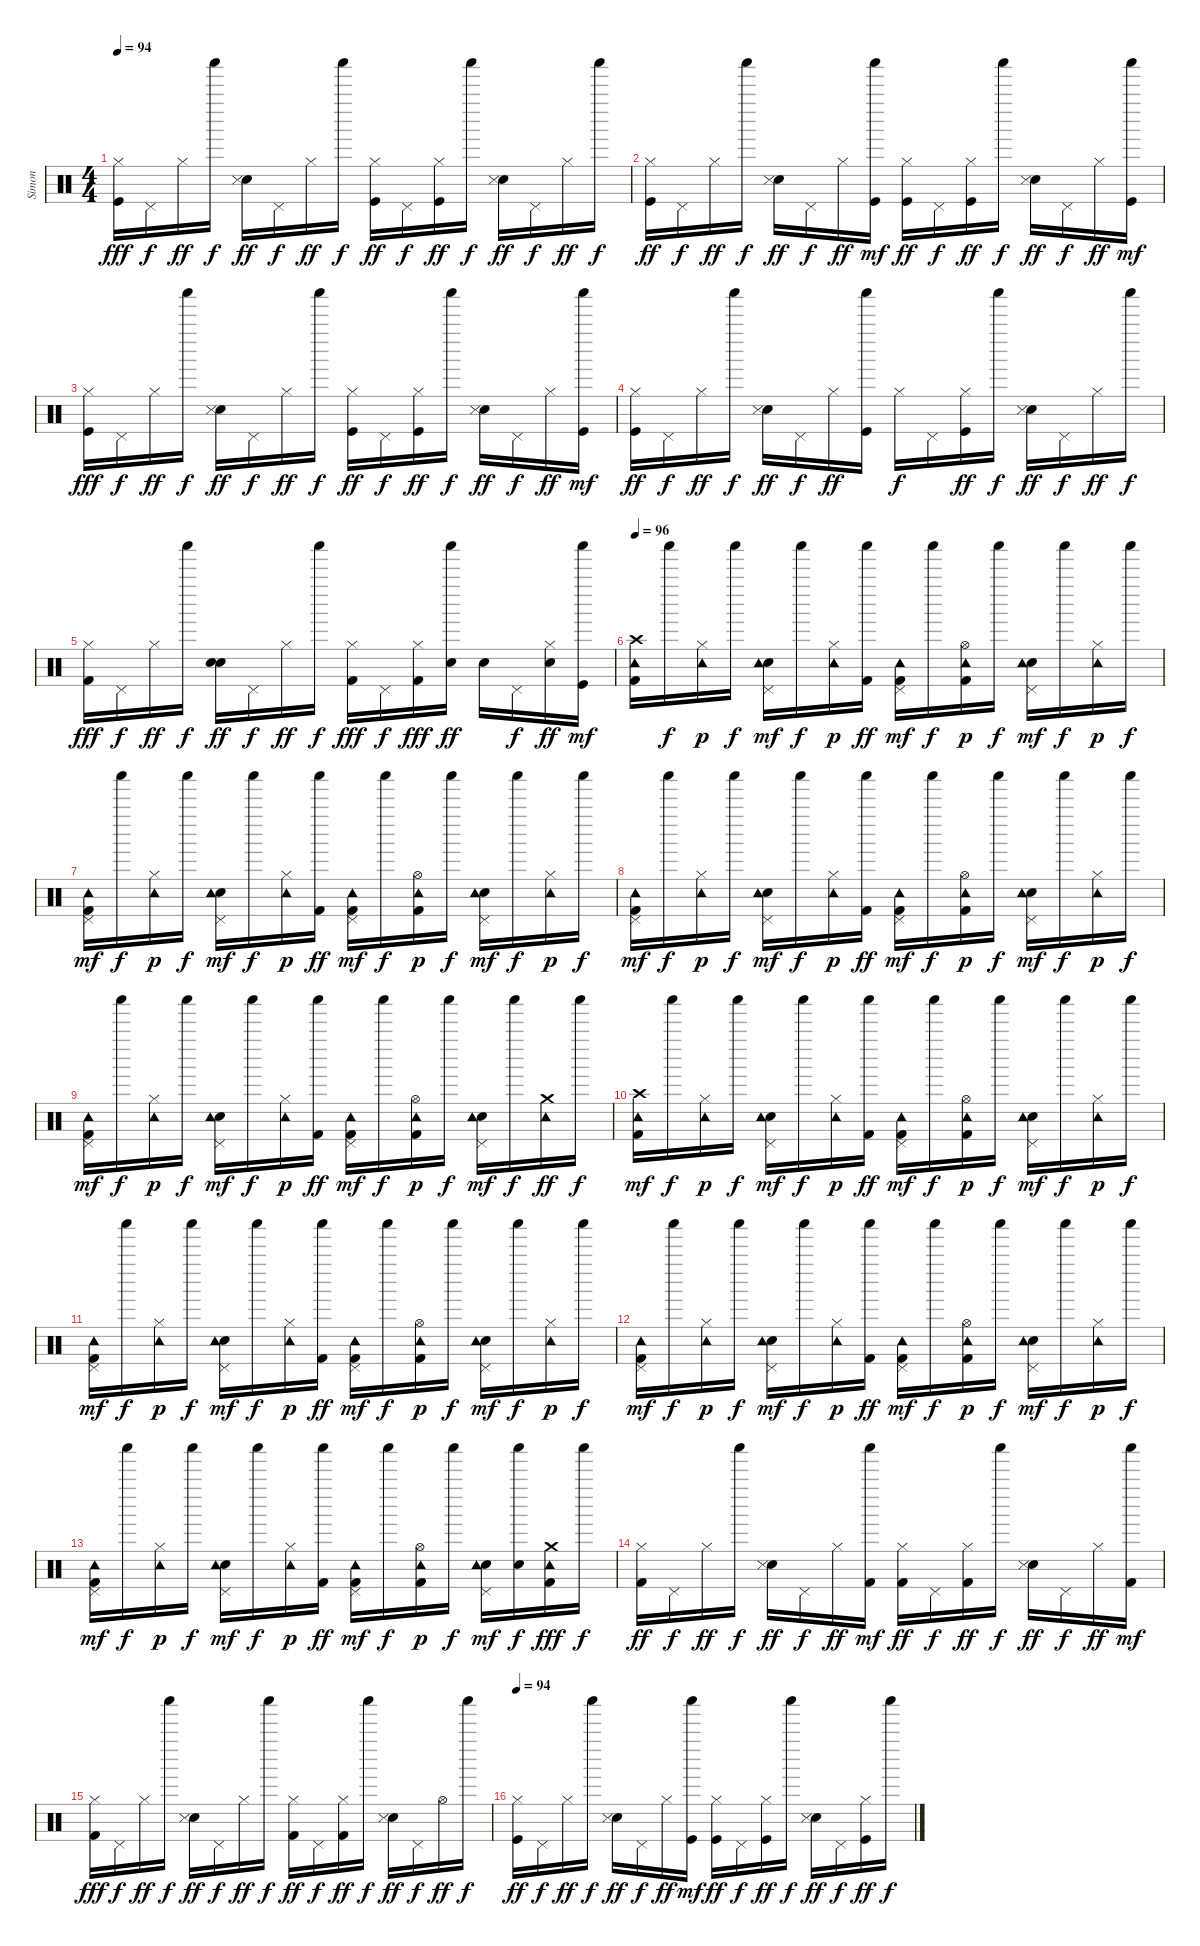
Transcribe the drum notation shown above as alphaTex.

\track ("Simon" "Simon") {instrument percussion}
\staff {score}
\articulation defaults
\ts (4 4)
\tempo 94
\clef neutral
\ks c
("Hi-Hat (closed)" "Kick (hit)").16{dy fff} "Pedal Hi-Hat (hit)".16{dy f} "Hi-Hat (closed)".16{dy ff} "Shaker (hit)".16{dy f} ("Electric Snare (hit)" "Snare (side stick) 3").16{dy ff} "Pedal Hi-Hat (hit)".16{dy f} "Hi-Hat (closed)".16{dy ff} "Shaker (hit)".16{dy f} ("Kick (hit)" "Hi-Hat (closed)").16{dy ff} "Pedal Hi-Hat (hit)".16{dy f} ("Kick (hit)" "Hi-Hat (closed)").16{dy ff} "Shaker (hit)".16{dy f} ("Electric Snare (hit)" "Snare (side stick) 3").16{dy ff} "Pedal Hi-Hat (hit)".16{dy f} "Hi-Hat (closed)".16{dy ff} "Shaker (hit)".16{dy f} |
("Kick (hit)" "Hi-Hat (closed)").16{dy ff} "Pedal Hi-Hat (hit)".16{dy f} "Hi-Hat (closed)".16{dy ff} "Shaker (hit)".16{dy f} ("Electric Snare (hit)" "Snare (side stick) 3").16{dy ff} "Pedal Hi-Hat (hit)".16{dy f} "Hi-Hat (closed)".16{dy ff} ("Kick (hit)" "Shaker (hit)").16{dy mf} ("Kick (hit)" "Hi-Hat (closed)").16{dy ff} "Pedal Hi-Hat (hit)".16{dy f} ("Kick (hit)" "Hi-Hat (closed)").16{dy ff} "Shaker (hit)".16{dy f} ("Electric Snare (hit)" "Snare (side stick) 3").16{dy ff} "Pedal Hi-Hat (hit)".16{dy f} "Hi-Hat (closed)".16{dy ff} ("Shaker (hit)" "Kick (hit)").16{dy mf} |
("Hi-Hat (closed)" "Kick (hit)").16{dy fff} "Pedal Hi-Hat (hit)".16{dy f} "Hi-Hat (closed)".16{dy ff} "Shaker (hit)".16{dy f} ("Electric Snare (hit)" "Snare (side stick) 3").16{dy ff} "Pedal Hi-Hat (hit)".16{dy f} "Hi-Hat (closed)".16{dy ff} "Shaker (hit)".16{dy f} ("Kick (hit)" "Hi-Hat (closed)").16{dy ff} "Pedal Hi-Hat (hit)".16{dy f} ("Kick (hit)" "Hi-Hat (closed)").16{dy ff} "Shaker (hit)".16{dy f} ("Electric Snare (hit)" "Snare (side stick) 3").16{dy ff} "Pedal Hi-Hat (hit)".16{dy f} "Hi-Hat (closed)".16{dy ff} ("Kick (hit)" "Shaker (hit)").16{dy mf} |
("Kick (hit)" "Hi-Hat (closed)").16{dy ff} "Pedal Hi-Hat (hit)".16{dy f} "Hi-Hat (closed)".16{dy ff} "Shaker (hit)".16{dy f} ("Electric Snare (hit)" "Snare (side stick) 3").16{dy ff} "Pedal Hi-Hat (hit)".16{dy f} "Hi-Hat (closed)".16{dy ff} ("Shaker (hit)" "Kick (hit)").16 "Hi-Hat (closed)".16{dy f} "Pedal Hi-Hat (hit)".16 ("Kick (hit)" "Hi-Hat (closed)").16{dy ff} "Shaker (hit)".16{dy f} ("Electric Snare (hit)" "Snare (side stick) 3").16{dy ff} "Pedal Hi-Hat (hit)".16{dy f} "Hi-Hat (closed)".16{dy ff} "Shaker (hit)".16{dy f} |
("Hi-Hat (closed)" "Kick (hit) 2").16{dy fff} "Pedal Hi-Hat (hit)".16{dy f} "Hi-Hat (closed)".16{dy ff} "Shaker (hit)".16{dy f} ("Electric Snare (hit)" "Snare (hit) 2").16{dy ff} "Pedal Hi-Hat (hit)".16{dy f} "Hi-Hat (closed)".16{dy ff} "Shaker (hit)".16{dy f} ("Hi-Hat (closed)" "Kick (hit) 2").16{dy fff} "Pedal Hi-Hat (hit)".16{dy f} ("Hi-Hat (closed)" "Kick (hit) 2").16{dy fff} ("Shaker (hit)" "Snare (hit) 2").16{dy ff} "Snare (hit) 2".16 "Pedal Hi-Hat (hit)".16{dy f} ("Hi-Hat (closed)" "Snare (hit) 2").16{dy ff} ("Kick (hit)" "Shaker (hit)").16{dy mf} |
\tempo 96
("Kick (hit) 2" "Crash high (hit)" "Tambourine (hit)").16 "Shaker (hit)".16{dy f} ("Hi-Hat (closed)" "Tambourine (hit)").16{dy p} "Shaker (hit)".16{dy f} ("Snare (hit) 2" "Pedal Hi-Hat (hit)" "Tambourine (hit)").16{dy mf} "Shaker (hit)".16{dy f} ("Hi-Hat (closed)" "Tambourine (hit)").16{dy p} ("Shaker (hit)" "Kick (hit) 2").16{dy ff} ("Kick (hit) 2" "Pedal Hi-Hat (hit)" "Tambourine (hit)").16{dy mf} "Shaker (hit)".16{dy f} ("Kick (hit) 2" "Hi-Hat (open)" "Tambourine (hit)").16{dy p} "Shaker (hit)".16{dy f} ("Snare (hit) 2" "Pedal Hi-Hat (hit)" "Tambourine (hit)").16{dy mf} "Shaker (hit)".16{dy f} ("Hi-Hat (closed)" "Tambourine (hit)").16{dy p} "Shaker (hit)".16{dy f} |
("Kick (hit) 2" "Pedal Hi-Hat (hit)" "Tambourine (hit)").16{dy mf} "Shaker (hit)".16{dy f} ("Hi-Hat (closed)" "Tambourine (hit)").16{dy p} "Shaker (hit)".16{dy f} ("Snare (hit) 2" "Pedal Hi-Hat (hit)" "Tambourine (hit)").16{dy mf} "Shaker (hit)".16{dy f} ("Hi-Hat (closed)" "Tambourine (hit)").16{dy p} ("Shaker (hit)" "Kick (hit) 2").16{dy ff} ("Kick (hit) 2" "Pedal Hi-Hat (hit)" "Tambourine (hit)").16{dy mf} "Shaker (hit)".16{dy f} ("Kick (hit) 2" "Hi-Hat (open)" "Tambourine (hit)").16{dy p} "Shaker (hit)".16{dy f} ("Snare (hit) 2" "Pedal Hi-Hat (hit)" "Tambourine (hit)").16{dy mf} "Shaker (hit)".16{dy f} ("Hi-Hat (closed)" "Tambourine (hit)").16{dy p} "Shaker (hit)".16{dy f} |
("Kick (hit) 2" "Tambourine (hit)" "Pedal Hi-Hat (hit)").16{dy mf} "Shaker (hit)".16{dy f} ("Hi-Hat (closed)" "Tambourine (hit)").16{dy p} "Shaker (hit)".16{dy f} ("Snare (hit) 2" "Pedal Hi-Hat (hit)" "Tambourine (hit)").16{dy mf} "Shaker (hit)".16{dy f} ("Hi-Hat (closed)" "Tambourine (hit)").16{dy p} ("Shaker (hit)" "Kick (hit) 2").16{dy ff} ("Kick (hit) 2" "Pedal Hi-Hat (hit)" "Tambourine (hit)").16{dy mf} "Shaker (hit)".16{dy f} ("Kick (hit) 2" "Hi-Hat (open)" "Tambourine (hit)").16{dy p} "Shaker (hit)".16{dy f} ("Snare (hit) 2" "Pedal Hi-Hat (hit)" "Tambourine (hit)").16{dy mf} "Shaker (hit)".16{dy f} ("Hi-Hat (closed)" "Tambourine (hit)").16{dy p} "Shaker (hit)".16{dy f} |
("Kick (hit) 2" "Pedal Hi-Hat (hit)" "Tambourine (hit)").16{dy mf} "Shaker (hit)".16{dy f} ("Hi-Hat (closed)" "Tambourine (hit)").16{dy p} "Shaker (hit)".16{dy f} ("Snare (hit) 2" "Pedal Hi-Hat (hit)" "Tambourine (hit)").16{dy mf} "Shaker (hit)".16{dy f} ("Hi-Hat (closed)" "Tambourine (hit)").16{dy p} ("Shaker (hit)" "Kick (hit) 2").16{dy ff} ("Kick (hit) 2" "Pedal Hi-Hat (hit)" "Tambourine (hit)").16{dy mf} "Shaker (hit)".16{dy f} ("Kick (hit) 2" "Hi-Hat (open)" "Tambourine (hit)").16{dy p} "Shaker (hit)".16{dy f} ("Snare (hit) 2" "Pedal Hi-Hat (hit)" "Tambourine (hit)").16{dy mf} "Shaker (hit)".16{dy f} ("Tambourine (hit)" "Crash medium (hit)").16{dy ff} "Shaker (hit)".16{dy f} |
("Kick (hit) 2" "Crash high (hit)" "Tambourine (hit)").16{dy mf} "Shaker (hit)".16{dy f} ("Hi-Hat (closed)" "Tambourine (hit)").16{dy p} "Shaker (hit)".16{dy f} ("Snare (hit) 2" "Pedal Hi-Hat (hit)" "Tambourine (hit)").16{dy mf} "Shaker (hit)".16{dy f} ("Hi-Hat (closed)" "Tambourine (hit)").16{dy p} ("Shaker (hit)" "Kick (hit) 2").16{dy ff} ("Kick (hit) 2" "Pedal Hi-Hat (hit)" "Tambourine (hit)").16{dy mf} "Shaker (hit)".16{dy f} ("Kick (hit) 2" "Hi-Hat (open)" "Tambourine (hit)").16{dy p} "Shaker (hit)".16{dy f} ("Snare (hit) 2" "Pedal Hi-Hat (hit)" "Tambourine (hit)").16{dy mf} "Shaker (hit)".16{dy f} ("Hi-Hat (closed)" "Tambourine (hit)").16{dy p} "Shaker (hit)".16{dy f} |
("Kick (hit) 2" "Pedal Hi-Hat (hit)" "Tambourine (hit)").16{dy mf} "Shaker (hit)".16{dy f} ("Hi-Hat (closed)" "Tambourine (hit)").16{dy p} "Shaker (hit)".16{dy f} ("Snare (hit) 2" "Pedal Hi-Hat (hit)" "Tambourine (hit)").16{dy mf} "Shaker (hit)".16{dy f} ("Hi-Hat (closed)" "Tambourine (hit)").16{dy p} ("Shaker (hit)" "Kick (hit) 2").16{dy ff} ("Kick (hit) 2" "Pedal Hi-Hat (hit)" "Tambourine (hit)").16{dy mf} "Shaker (hit)".16{dy f} ("Kick (hit) 2" "Hi-Hat (open)" "Tambourine (hit)").16{dy p} "Shaker (hit)".16{dy f} ("Snare (hit) 2" "Pedal Hi-Hat (hit)" "Tambourine (hit)").16{dy mf} "Shaker (hit)".16{dy f} ("Hi-Hat (closed)" "Tambourine (hit)").16{dy p} "Shaker (hit)".16{dy f} |
("Kick (hit) 2" "Tambourine (hit)" "Pedal Hi-Hat (hit)").16{dy mf} "Shaker (hit)".16{dy f} ("Hi-Hat (closed)" "Tambourine (hit)").16{dy p} "Shaker (hit)".16{dy f} ("Snare (hit) 2" "Pedal Hi-Hat (hit)" "Tambourine (hit)").16{dy mf} "Shaker (hit)".16{dy f} ("Hi-Hat (closed)" "Tambourine (hit)").16{dy p} ("Shaker (hit)" "Kick (hit) 2").16{dy ff} ("Kick (hit) 2" "Pedal Hi-Hat (hit)" "Tambourine (hit)").16{dy mf} "Shaker (hit)".16{dy f} ("Kick (hit) 2" "Hi-Hat (open)" "Tambourine (hit)").16{dy p} "Shaker (hit)".16{dy f} ("Snare (hit) 2" "Pedal Hi-Hat (hit)" "Tambourine (hit)").16{dy mf} "Shaker (hit)".16{dy f} ("Hi-Hat (closed)" "Tambourine (hit)").16{dy p} "Shaker (hit)".16{dy f} |
("Kick (hit) 2" "Pedal Hi-Hat (hit)" "Tambourine (hit)").16{dy mf} "Shaker (hit)".16{dy f} ("Hi-Hat (closed)" "Tambourine (hit)").16{dy p} "Shaker (hit)".16{dy f} ("Snare (hit) 2" "Pedal Hi-Hat (hit)" "Tambourine (hit)").16{dy mf} "Shaker (hit)".16{dy f} ("Hi-Hat (closed)" "Tambourine (hit)").16{dy p} ("Shaker (hit)" "Kick (hit) 2").16{dy ff} ("Kick (hit) 2" "Pedal Hi-Hat (hit)" "Tambourine (hit)").16{dy mf} "Shaker (hit)".16{dy f} ("Kick (hit) 2" "Hi-Hat (open)" "Tambourine (hit)").16{dy p} "Shaker (hit)".16{dy f} ("Snare (hit) 2" "Pedal Hi-Hat (hit)" "Tambourine (hit)").16{dy mf} ("Shaker (hit)" "Snare (hit) 2").16{dy f} ("Tambourine (hit)" "Crash medium (hit)" "Kick (hit) 2").16{dy fff} "Shaker (hit)".16{dy f} |
("Hi-Hat (closed)" "Kick (hit) 2").16{dy ff} "Pedal Hi-Hat (hit)".16{dy f} "Hi-Hat (closed)".16{dy ff} "Shaker (hit)".16{dy f} ("Electric Snare (hit)" "Snare (side stick) 3").16{dy ff} "Pedal Hi-Hat (hit)".16{dy f} "Hi-Hat (closed)".16{dy ff} ("Shaker (hit)" "Kick (hit) 2").16{dy mf} ("Hi-Hat (closed)" "Kick (hit) 2").16{dy ff} "Pedal Hi-Hat (hit)".16{dy f} ("Hi-Hat (closed)" "Kick (hit) 2").16{dy ff} "Shaker (hit)".16{dy f} ("Electric Snare (hit)" "Snare (side stick) 3").16{dy ff} "Pedal Hi-Hat (hit)".16{dy f} "Hi-Hat (closed)".16{dy ff} ("Shaker (hit)" "Kick (hit) 2").16{dy mf} |
("Hi-Hat (closed)" "Kick (hit) 2").16{dy fff} "Pedal Hi-Hat (hit)".16{dy f} "Hi-Hat (closed)".16{dy ff} "Shaker (hit)".16{dy f} ("Electric Snare (hit)" "Snare (side stick) 3").16{dy ff} "Pedal Hi-Hat (hit)".16{dy f} "Hi-Hat (closed)".16{dy ff} "Shaker (hit)".16{dy f} ("Hi-Hat (closed)" "Kick (hit) 2").16{dy ff} "Pedal Hi-Hat (hit)".16{dy f} ("Hi-Hat (closed)" "Kick (hit) 2").16{dy ff} "Shaker (hit)".16{dy f} ("Electric Snare (hit)" "Snare (side stick) 3").16{dy ff} "Pedal Hi-Hat (hit)".16{dy f} "Hi-Hat (open)".16{dy ff} "Shaker (hit)".16{dy f} |
\tempo 94
("Kick (hit)" "Hi-Hat (closed)").16{dy ff} "Pedal Hi-Hat (hit)".16{dy f} "Hi-Hat (closed)".16{dy ff} "Shaker (hit)".16{dy f} ("Electric Snare (hit)" "Snare (side stick) 3").16{dy ff} "Pedal Hi-Hat (hit)".16{dy f} "Hi-Hat (closed)".16{dy ff} ("Kick (hit)" "Shaker (hit)").16{dy mf} ("Kick (hit)" "Hi-Hat (closed)").16{dy ff} "Pedal Hi-Hat (hit)".16{dy f} ("Kick (hit)" "Hi-Hat (closed)").16{dy ff} "Shaker (hit)".16{dy f} ("Electric Snare (hit)" "Snare (side stick) 3").16{dy ff} "Pedal Hi-Hat (hit)".16{dy f} ("Kick (hit)" "Hi-Hat (closed)").16{dy ff} "Shaker (hit)".16{dy f}
